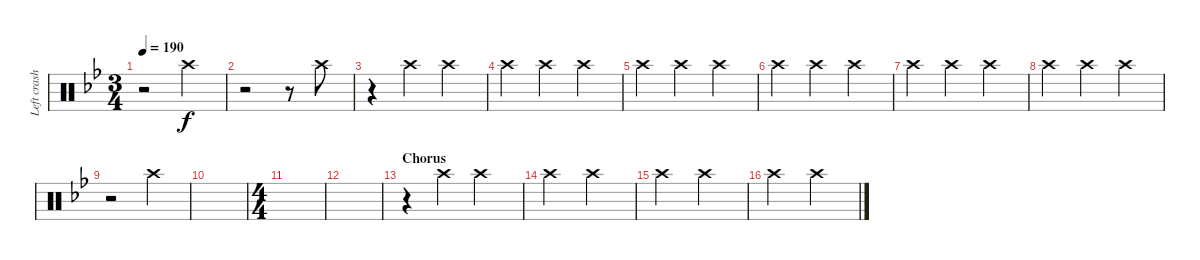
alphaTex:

\track ("Left crash" "Left crash") {instrument percussion}
\staff {score}
\articulation defaults
\ts (3 4)
\tempo 190
\clef neutral
\ks bb
r.2{dy f} "Crash high (hit)".4 |
r.2 r.8 "Crash high (hit)".8 |
r.4 "Crash high (hit)".4 "Crash high (hit)".4 |
"Crash high (hit)".4 "Crash high (hit)".4 "Crash high (hit)".4 |
"Crash high (hit)".4 "Crash high (hit)".4 "Crash high (hit)".4 |
"Crash high (hit)".4 "Crash high (hit)".4 "Crash high (hit)".4 |
"Crash high (hit)".4 "Crash high (hit)".4 "Crash high (hit)".4 |
"Crash high (hit)".4 "Crash high (hit)".4 "Crash high (hit)".4 |
r.2 "Crash high (hit)".4 |
|
\ts (4 4)
|
|
\section ("" "Chorus")
r.4 "Crash high (hit)".4 "Crash high (hit)".2 |
"Crash high (hit)".2 "Crash high (hit)".2 |
"Crash high (hit)".2 "Crash high (hit)".2 |
"Crash high (hit)".2 "Crash high (hit)".2
